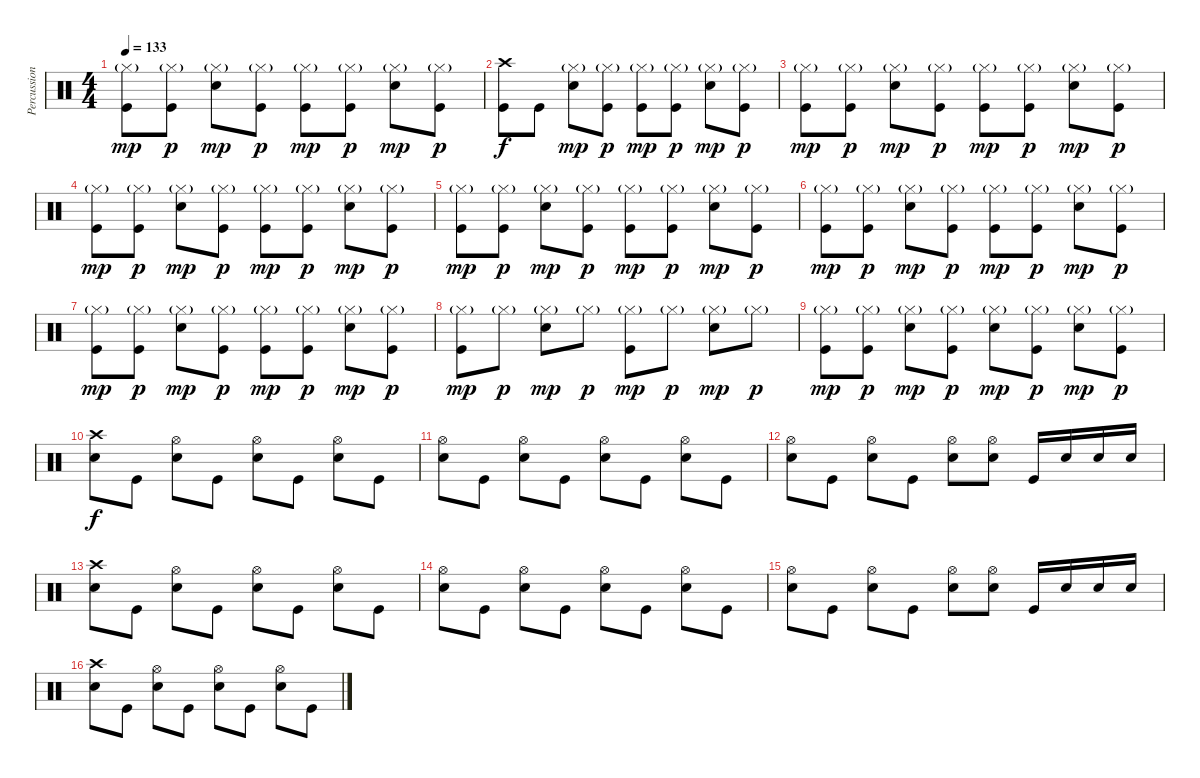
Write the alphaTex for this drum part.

\track ("Percussion" "Percussion") {instrument percussion}
\staff {score}
\articulation defaults
\ts (4 4)
\tempo 133
\clef neutral
\ks c
("Hi-Hat (closed)"{g} "Kick (hit)").8{dy mp} ("Hi-Hat (closed)"{g} "Kick (hit)").8{dy p} ("Hi-Hat (closed)"{g} "Electric Snare (hit)").8{dy mp} ("Hi-Hat (closed)"{g} "Kick (hit)").8{dy p} ("Hi-Hat (closed)"{g} "Kick (hit)").8{dy mp} ("Hi-Hat (closed)"{g} "Kick (hit)").8{dy p} ("Hi-Hat (closed)"{g} "Electric Snare (hit)").8{dy mp} ("Hi-Hat (closed)"{g} "Kick (hit)").8{dy p} |
("Crash high (hit)" "Kick (hit)").8{dy f} "Kick (hit)".8 ("Hi-Hat (closed)"{g} "Electric Snare (hit)").8{dy mp} ("Hi-Hat (closed)"{g} "Kick (hit)").8{dy p} ("Hi-Hat (closed)"{g} "Kick (hit)").8{dy mp} ("Hi-Hat (closed)"{g} "Kick (hit)").8{dy p} ("Hi-Hat (closed)"{g} "Electric Snare (hit)").8{dy mp} ("Hi-Hat (closed)"{g} "Kick (hit)").8{dy p} |
("Hi-Hat (closed)"{g} "Kick (hit)").8{dy mp} ("Hi-Hat (closed)"{g} "Kick (hit)").8{dy p} ("Hi-Hat (closed)"{g} "Electric Snare (hit)").8{dy mp} ("Hi-Hat (closed)"{g} "Kick (hit)").8{dy p} ("Hi-Hat (closed)"{g} "Kick (hit)").8{dy mp} ("Hi-Hat (closed)"{g} "Kick (hit)").8{dy p} ("Hi-Hat (closed)"{g} "Electric Snare (hit)").8{dy mp} ("Hi-Hat (closed)"{g} "Kick (hit)").8{dy p} |
("Hi-Hat (closed)"{g} "Kick (hit)").8{dy mp} ("Hi-Hat (closed)"{g} "Kick (hit)").8{dy p} ("Hi-Hat (closed)"{g} "Electric Snare (hit)").8{dy mp} ("Hi-Hat (closed)"{g} "Kick (hit)").8{dy p} ("Hi-Hat (closed)"{g} "Kick (hit)").8{dy mp} ("Hi-Hat (closed)"{g} "Kick (hit)").8{dy p} ("Hi-Hat (closed)"{g} "Electric Snare (hit)").8{dy mp} ("Hi-Hat (closed)"{g} "Kick (hit)").8{dy p} |
("Hi-Hat (closed)"{g} "Kick (hit)").8{dy mp} ("Hi-Hat (closed)"{g} "Kick (hit)").8{dy p} ("Hi-Hat (closed)"{g} "Electric Snare (hit)").8{dy mp} ("Hi-Hat (closed)"{g} "Kick (hit)").8{dy p} ("Hi-Hat (closed)"{g} "Kick (hit)").8{dy mp} ("Hi-Hat (closed)"{g} "Kick (hit)").8{dy p} ("Hi-Hat (closed)"{g} "Electric Snare (hit)").8{dy mp} ("Hi-Hat (closed)"{g} "Kick (hit)").8{dy p} |
("Hi-Hat (closed)"{g} "Kick (hit)").8{dy mp} ("Hi-Hat (closed)"{g} "Kick (hit)").8{dy p} ("Hi-Hat (closed)"{g} "Electric Snare (hit)").8{dy mp} ("Hi-Hat (closed)"{g} "Kick (hit)").8{dy p} ("Hi-Hat (closed)"{g} "Kick (hit)").8{dy mp} ("Hi-Hat (closed)"{g} "Kick (hit)").8{dy p} ("Hi-Hat (closed)"{g} "Electric Snare (hit)").8{dy mp} ("Hi-Hat (closed)"{g} "Kick (hit)").8{dy p} |
("Hi-Hat (closed)"{g} "Kick (hit)").8{dy mp} ("Hi-Hat (closed)"{g} "Kick (hit)").8{dy p} ("Hi-Hat (closed)"{g} "Electric Snare (hit)").8{dy mp} ("Hi-Hat (closed)"{g} "Kick (hit)").8{dy p} ("Hi-Hat (closed)"{g} "Kick (hit)").8{dy mp} ("Hi-Hat (closed)"{g} "Kick (hit)").8{dy p} ("Hi-Hat (closed)"{g} "Electric Snare (hit)").8{dy mp} ("Hi-Hat (closed)"{g} "Kick (hit)").8{dy p} |
("Hi-Hat (closed)"{g} "Kick (hit)").8{dy mp} "Hi-Hat (closed)"{g}.8{dy p} ("Hi-Hat (closed)"{g} "Electric Snare (hit)").8{dy mp} "Hi-Hat (closed)"{g}.8{dy p} ("Hi-Hat (closed)"{g} "Kick (hit)").8{dy mp} "Hi-Hat (closed)"{g}.8{dy p} ("Hi-Hat (closed)"{g} "Electric Snare (hit)").8{dy mp} "Hi-Hat (closed)"{g}.8{dy p} |
("Hi-Hat (closed)"{g} "Kick (hit)").8{dy mp} ("Hi-Hat (closed)"{g} "Kick (hit)").8{dy p} ("Hi-Hat (closed)"{g} "Electric Snare (hit)").8{dy mp} ("Hi-Hat (closed)"{g} "Kick (hit)").8{dy p} ("Hi-Hat (closed)"{g} "Electric Snare (hit)").8{dy mp} ("Hi-Hat (closed)"{g} "Kick (hit)").8{dy p} ("Hi-Hat (closed)"{g} "Electric Snare (hit)").8{dy mp} ("Hi-Hat (closed)"{g} "Kick (hit)").8{dy p} |
("Crash high (hit)" "Electric Snare (hit)").8{dy f} "Kick (hit)".8 ("Hi-Hat (open)" "Electric Snare (hit)").8 "Kick (hit)".8 ("Hi-Hat (open)" "Electric Snare (hit)").8 "Kick (hit)".8 ("Hi-Hat (open)" "Electric Snare (hit)").8 "Kick (hit)".8 |
("Hi-Hat (open)" "Electric Snare (hit)").8 "Kick (hit)".8 ("Hi-Hat (open)" "Electric Snare (hit)").8 "Kick (hit)".8 ("Hi-Hat (open)" "Electric Snare (hit)").8 "Kick (hit)".8 ("Hi-Hat (open)" "Electric Snare (hit)").8 "Kick (hit)".8 |
("Hi-Hat (open)" "Electric Snare (hit)").8 "Kick (hit)".8 ("Hi-Hat (open)" "Electric Snare (hit)").8 "Kick (hit)".8 ("Hi-Hat (open)" "Electric Snare (hit)").8 ("Hi-Hat (open)" "Electric Snare (hit)").8 "Kick (hit)".16 "Electric Snare (hit)".16 "Electric Snare (hit)".16 "Electric Snare (hit)".16 |
("Crash high (hit)" "Electric Snare (hit)").8 "Kick (hit)".8 ("Hi-Hat (open)" "Electric Snare (hit)").8 "Kick (hit)".8 ("Hi-Hat (open)" "Electric Snare (hit)").8 "Kick (hit)".8 ("Hi-Hat (open)" "Electric Snare (hit)").8 "Kick (hit)".8 |
("Hi-Hat (open)" "Electric Snare (hit)").8 "Kick (hit)".8 ("Hi-Hat (open)" "Electric Snare (hit)").8 "Kick (hit)".8 ("Hi-Hat (open)" "Electric Snare (hit)").8 "Kick (hit)".8 ("Hi-Hat (open)" "Electric Snare (hit)").8 "Kick (hit)".8 |
("Hi-Hat (open)" "Electric Snare (hit)").8 "Kick (hit)".8 ("Hi-Hat (open)" "Electric Snare (hit)").8 "Kick (hit)".8 ("Hi-Hat (open)" "Electric Snare (hit)").8 ("Hi-Hat (open)" "Electric Snare (hit)").8 "Kick (hit)".16 "Electric Snare (hit)".16 "Electric Snare (hit)".16 "Electric Snare (hit)".16 |
("Crash high (hit)" "Electric Snare (hit)").8 "Kick (hit)".8 ("Hi-Hat (open)" "Electric Snare (hit)").8 "Kick (hit)".8 ("Hi-Hat (open)" "Electric Snare (hit)").8 "Kick (hit)".8 ("Hi-Hat (open)" "Electric Snare (hit)").8 "Kick (hit)".8
